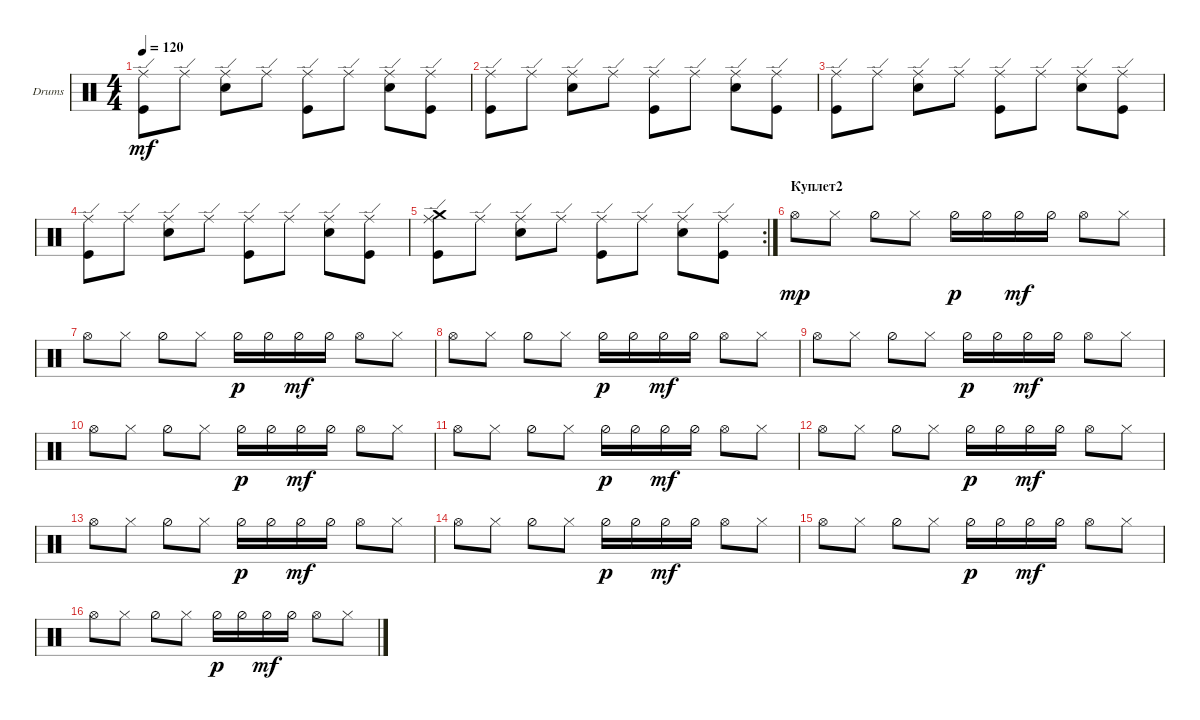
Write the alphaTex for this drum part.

\defaultSystemsLayout 4
\bracketExtendMode groupsimilarinstruments
\firstSystemTrackNameOrientation horizontal
\otherSystemsTrackNameOrientation horizontal
\track ("Drumkit" "Drums") {instrument percussion}
\staff {score}
\articulation defaults
\ts (4 4)
\tempo 120
\clef neutral
\ks c
("Kick (hit)" "Ride (edge)").8{dy mf} "Ride (edge)".8 ("Snare (hit) 2" "Ride (edge)").8 "Ride (edge)".8 ("Ride (edge)" "Kick (hit)").8 "Ride (edge)".8 ("Snare (hit) 2" "Ride (edge)").8 ("Ride (edge)" "Kick (hit)").8 |
("Kick (hit)" "Ride (edge)").8 "Ride (edge)".8 ("Snare (hit) 2" "Ride (edge)").8 "Ride (edge)".8 ("Ride (edge)" "Kick (hit)").8 "Ride (edge)".8 ("Snare (hit) 2" "Ride (edge)").8 ("Ride (edge)" "Kick (hit)").8 |
("Kick (hit)" "Ride (edge)").8 "Ride (edge)".8 ("Snare (hit) 2" "Ride (edge)").8 "Ride (edge)".8 ("Ride (edge)" "Kick (hit)").8 "Ride (edge)".8 ("Snare (hit) 2" "Ride (edge)").8 ("Ride (edge)" "Kick (hit)").8 |
("Kick (hit)" "Ride (edge)").8 "Ride (edge)".8 ("Snare (hit) 2" "Ride (edge)").8 "Ride (edge)".8 ("Ride (edge)" "Kick (hit)").8 "Ride (edge)".8 ("Snare (hit) 2" "Ride (edge)").8 ("Ride (edge)" "Kick (hit)").8 |
\rc 2
("Kick (hit)" "Ride (edge)" "Crash medium (hit)").8 "Ride (edge)".8 ("Snare (hit) 2" "Ride (edge)").8 "Ride (edge)".8 ("Ride (edge)" "Kick (hit)").8 "Ride (edge)".8 ("Snare (hit) 2" "Ride (edge)").8 ("Ride (edge)" "Kick (hit)").8 |
\section ("" "Куплет2")
"Hi-Hat (open)".8{dy mp} "Hi-Hat (closed)".8 "Hi-Hat (half)".8 "Hi-Hat (closed)".8 "Hi-Hat (half)".16{dy p} "Hi-Hat (half)".16 "Hi-Hat (half)".16{dy mf} "Hi-Hat (half)".16 "Hi-Hat (open)".8 "Hi-Hat (closed)".8 |
"Hi-Hat (open)".8 "Hi-Hat (closed)".8 "Hi-Hat (half)".8 "Hi-Hat (closed)".8 "Hi-Hat (half)".16{dy p} "Hi-Hat (half)".16 "Hi-Hat (half)".16{dy mf} "Hi-Hat (half)".16 "Hi-Hat (open)".8 "Hi-Hat (closed)".8 |
"Hi-Hat (open)".8 "Hi-Hat (closed)".8 "Hi-Hat (half)".8 "Hi-Hat (closed)".8 "Hi-Hat (half)".16{dy p} "Hi-Hat (half)".16 "Hi-Hat (half)".16{dy mf} "Hi-Hat (half)".16 "Hi-Hat (open)".8 "Hi-Hat (closed)".8 |
"Hi-Hat (open)".8 "Hi-Hat (closed)".8 "Hi-Hat (half)".8 "Hi-Hat (closed)".8 "Hi-Hat (half)".16{dy p} "Hi-Hat (half)".16 "Hi-Hat (half)".16{dy mf} "Hi-Hat (half)".16 "Hi-Hat (open)".8 "Hi-Hat (closed)".8 |
"Hi-Hat (open)".8 "Hi-Hat (closed)".8 "Hi-Hat (half)".8 "Hi-Hat (closed)".8 "Hi-Hat (half)".16{dy p} "Hi-Hat (half)".16 "Hi-Hat (half)".16{dy mf} "Hi-Hat (half)".16 "Hi-Hat (open)".8 "Hi-Hat (closed)".8 |
"Hi-Hat (open)".8 "Hi-Hat (closed)".8 "Hi-Hat (half)".8 "Hi-Hat (closed)".8 "Hi-Hat (half)".16{dy p} "Hi-Hat (half)".16 "Hi-Hat (half)".16{dy mf} "Hi-Hat (half)".16 "Hi-Hat (open)".8 "Hi-Hat (closed)".8 |
"Hi-Hat (open)".8 "Hi-Hat (closed)".8 "Hi-Hat (half)".8 "Hi-Hat (closed)".8 "Hi-Hat (half)".16{dy p} "Hi-Hat (half)".16 "Hi-Hat (half)".16{dy mf} "Hi-Hat (half)".16 "Hi-Hat (open)".8 "Hi-Hat (closed)".8 |
"Hi-Hat (open)".8 "Hi-Hat (closed)".8 "Hi-Hat (half)".8 "Hi-Hat (closed)".8 "Hi-Hat (half)".16{dy p} "Hi-Hat (half)".16 "Hi-Hat (half)".16{dy mf} "Hi-Hat (half)".16 "Hi-Hat (open)".8 "Hi-Hat (closed)".8 |
"Hi-Hat (open)".8 "Hi-Hat (closed)".8 "Hi-Hat (half)".8 "Hi-Hat (closed)".8 "Hi-Hat (half)".16{dy p} "Hi-Hat (half)".16 "Hi-Hat (half)".16{dy mf} "Hi-Hat (half)".16 "Hi-Hat (open)".8 "Hi-Hat (closed)".8 |
"Hi-Hat (open)".8 "Hi-Hat (closed)".8 "Hi-Hat (half)".8 "Hi-Hat (closed)".8 "Hi-Hat (half)".16{dy p} "Hi-Hat (half)".16 "Hi-Hat (half)".16{dy mf} "Hi-Hat (half)".16 "Hi-Hat (open)".8 "Hi-Hat (closed)".8 |
"Hi-Hat (open)".8 "Hi-Hat (closed)".8 "Hi-Hat (half)".8 "Hi-Hat (closed)".8 "Hi-Hat (half)".16{dy p} "Hi-Hat (half)".16 "Hi-Hat (half)".16{dy mf} "Hi-Hat (half)".16 "Hi-Hat (open)".8 "Hi-Hat (closed)".8
